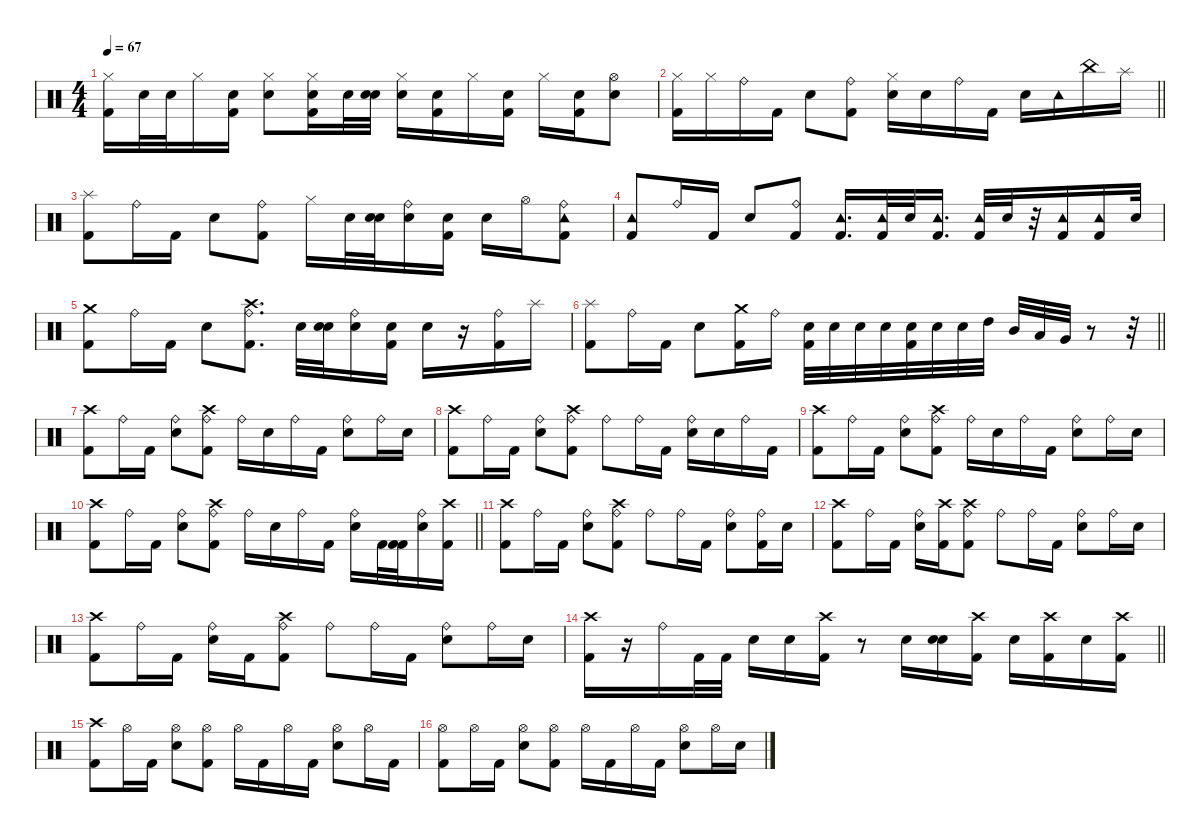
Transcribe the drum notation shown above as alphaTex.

\defaultSystemsLayout 4
\hideDynamics
\bracketExtendMode nobrackets
\singleTrackTrackNamePolicy hidden
\multiTrackTrackNamePolicy hidden
\firstSystemTrackNameMode fullname
\otherSystemsTrackNameOrientation horizontal
\track ("Drums" "drm.") {instrument percussion}
\staff {score}
\articulation defaults
\ts (4 4)
\tempo 67
\clef neutral
\ks c
("Hi-Hat (closed)" "Kick (hit) 2").16{dy f beam Down} "Snare (hit) 2".32{dy p beam Down} "Snare (hit) 2".32{beam Down} "Hi-Hat (closed)".16{dy f beam Down} ("Kick (hit) 2" "Snare (hit) 2").16{beam Down} ("Hi-Hat (closed)" "Snare (hit) 2").8{beam Down} ("Hi-Hat (closed)" "Kick (hit) 2" "Snare (hit) 2").16{beam Down} "Snare (hit) 2".32{dy p beam Down} ("Snare (hit) 2" "Snare (hit) 2").32{beam Down} ("Hi-Hat (closed)" "Snare (hit) 2").16{dy f beam Down} ("Kick (hit) 2" "Snare (hit) 2").16{beam Down} "Hi-Hat (closed)".16{beam Down} ("Kick (hit) 2" "Snare (hit) 2").16{beam Down} "Hi-Hat (closed)".16{beam Down} ("Kick (hit) 2" "Snare (hit) 2").16{beam Down} ("Hi-Hat (open)" "Snare (hit) 2").8{beam Down} |
\barLineRight lightlight
("Hi-Hat (closed)" "Kick (hit) 2").16{beam Down} "Hi-Hat (closed)".16{beam Down} "Ride (bell)".16{beam Down} "Kick (hit) 2".16{beam Down} "Snare (hit) 2".8{beam Down} ("Kick (hit) 2" "Ride (bell)").8{beam Down} ("Hi-Hat (closed)" "Snare (hit) 2").16{beam Down} "Snare (hit) 2".16{dy p beam Down} "Ride (bell)".16{dy f beam Down} "Kick (hit) 2".16{beam Down} "Snare (hit) 2".16{beam Down} "Tambourine (hit)".16{beam Down} "China (hit)".16{beam Down} "Splash (hit)".16{beam Down} |
("Splash (hit)" "Kick (hit) 2").8{beam Down} "Ride (bell)".16{beam Down} "Kick (hit) 2".16{beam Down} "Snare (hit) 2".8{beam Down} ("Kick (hit) 2" "Ride (bell)").8{beam Down} "Hi-Hat (closed)".16{beam Down} "Snare (hit) 2".32{dy p beam Down} ("Snare (hit) 2" "Snare (hit) 2").32{beam Down} ("Ride (bell)" "Snare (hit) 2").16{dy f beam Down} ("Kick (hit) 2" "Snare (hit) 2").16{beam Down} "Snare (hit) 2".16{beam Down} "Hi-Hat (open)".16{beam Down} ("Ride (bell)" "Tambourine (hit)" "Kick (hit) 2").8{beam Down} |
("Kick (hit) 2" "Tambourine (hit)").8{beam Up} "Ride (bell)".16{beam Up} "Kick (hit) 2".16{beam Up} "Snare (hit) 2".8{beam Up} ("Ride (bell)" "Kick (hit) 2").8{beam Up} ("Kick (hit) 2" "Tambourine (hit)").16{d beam Up} ("Kick (hit) 2" "Tambourine (hit)").32{beam Up} "Snare (hit) 2".32{beam Up} ("Kick (hit) 2" "Tambourine (hit)").16{d beam Up} ("Kick (hit) 2" "Tambourine (hit)").32{beam Up} "Snare (hit) 2".32{beam Up} r.32{beam Up} ("Kick (hit) 2" "Tambourine (hit)").16{beam Up} ("Kick (hit) 2" "Tambourine (hit)").16{beam Up} "Snare (hit) 2".32{beam Up} |
("Kick (hit) 2" "Crash medium (hit)").8{beam Down} "Ride (bell)".16{beam Down} "Kick (hit) 2".16{beam Down} "Snare (hit) 2".8{beam Down} ("Ride (bell)" "Kick (hit) 2" "Crash high (hit)").8{d beam Down} "Snare (hit) 2".32{dy p beam Down} ("Snare (hit) 2" "Snare (hit) 2").32{beam Down} ("Ride (bell)" "Snare (hit) 2").16{dy f beam Down} ("Kick (hit) 2" "Snare (hit) 2").16{beam Down} "Snare (hit) 2".16{beam Down} r.16{beam Down} ("Ride (bell)" "Kick (hit) 2").16{beam Down} "Splash (hit)".16{beam Down} |
\barLineRight lightlight
("Kick (hit) 2" "Splash (hit)").8{beam Down} "Ride (bell)".16{beam Down} "Kick (hit) 2".16{beam Down} "Snare (hit) 2".8{beam Down} ("Kick (hit) 2" "Crash medium (hit)").16{beam Down} "Ride (bell)".16{beam Down} ("Kick (hit) 2" "Snare (hit) 2").32{beam Down} "Snare (hit) 2".32{beam Down} "Snare (hit) 2".32{beam Down} "Snare (hit) 2".32{dy mp beam Down} ("Kick (hit) 2" "Snare (hit) 2").32{dy f beam Down} "Snare (hit) 2".32{beam Down} "Snare (hit) 2".32{beam Down} "High Tom (hit)".32{beam Down} "Mid Tom (hit)".32{beam Up} "Low Tom (hit)".32{beam Up} "Very Low Tom (hit)".32{beam Up} r.8{beam Up} r.32{beam Up} |
("Kick (hit) 2" "Crash high (hit)").8{beam Down} "Ride (bell)".16{beam Down} "Kick (hit) 2".16{beam Down} ("Snare (hit) 2" "Ride (bell)").8{beam Down} ("Kick (hit) 2" "Ride (bell)" "Crash high (hit)").8{beam Down} "Ride (bell)".16{beam Down} "Snare (hit) 2".16{dy mp beam Down} "Ride (bell)".16{dy f beam Down} "Kick (hit) 2".16{beam Down} ("Snare (hit) 2" "Ride (bell)").8{beam Down} "Ride (bell)".16{beam Down} "Snare (hit) 2".16{beam Down} |
("Crash high (hit)" "Kick (hit) 2").8{beam Down} "Ride (bell)".16{beam Down} "Kick (hit) 2".16{beam Down} ("Snare (hit) 2" "Ride (bell)").8{beam Down} ("Kick (hit) 2" "Ride (bell)" "Crash high (hit)").8{beam Down} "Ride (bell)".8{beam Down} "Ride (bell)".16{beam Down} "Kick (hit) 2".16{beam Down} ("Snare (hit) 2" "Ride (bell)").16{beam Down} "Snare (hit) 2".16{beam Down} "Ride (bell)".16{beam Down} "Kick (hit) 2".16{beam Down} |
("Crash high (hit)" "Kick (hit) 2").8{beam Down} "Ride (bell)".16{beam Down} "Kick (hit) 2".16{beam Down} ("Snare (hit) 2" "Ride (bell)").8{beam Down} ("Kick (hit) 2" "Ride (bell)" "Crash high (hit)").8{beam Down} "Ride (bell)".16{beam Down} "Snare (hit) 2".16{dy mp beam Down} "Ride (bell)".16{dy f beam Down} "Kick (hit) 2".16{beam Down} ("Snare (hit) 2" "Ride (bell)").8{beam Down} "Ride (bell)".16{beam Down} "Snare (hit) 2".16{beam Down} |
\barLineRight lightlight
("Kick (hit) 2" "Crash high (hit)").8{beam Down} "Ride (bell)".16{beam Down} "Kick (hit) 2".16{beam Down} ("Snare (hit) 2" "Ride (bell)").8{beam Down} ("Kick (hit) 2" "Ride (bell)" "Crash high (hit)").8{beam Down} "Ride (bell)".16{beam Down} "Snare (hit) 2".16{beam Down} "Ride (bell)".16{beam Down} "Kick (hit) 2".16{beam Down} ("Ride (bell)" "Snare (hit) 2").16{beam Down} "Kick (hit) 2".32{beam Down} ("Kick (hit) 2" "Kick (hit) 2").32{beam Down} ("Ride (bell)" "Snare (hit) 2").16{beam Down} ("Kick (hit) 2" "Crash high (hit)").16{beam Down} |
("Crash high (hit)" "Kick (hit) 2").8{beam Down} "Ride (bell)".16{beam Down} "Kick (hit) 2".16{beam Down} ("Snare (hit) 2" "Ride (bell)").8{beam Down} ("Kick (hit) 2" "Ride (bell)" "Crash high (hit)").8{beam Down} "Ride (bell)".8{beam Down} "Ride (bell)".16{beam Down} "Kick (hit) 2".16{beam Down} ("Snare (hit) 2" "Ride (bell)").8{beam Down} ("Ride (bell)" "Kick (hit) 2").16{beam Down} "Snare (hit) 2".16{beam Down} |
("Kick (hit) 2" "Crash high (hit)").8{beam Down} "Ride (bell)".16{beam Down} "Kick (hit) 2".16{beam Down} ("Ride (bell)" "Snare (hit) 2").16{beam Down} ("Crash high (hit)" "Kick (hit) 2").16{beam Down} ("Kick (hit) 2" "Ride (bell)" "Crash high (hit)").8{beam Down} "Ride (bell)".8{beam Down} "Ride (bell)".16{beam Down} "Kick (hit) 2".16{beam Down} ("Snare (hit) 2" "Ride (bell)").8{beam Down} "Ride (bell)".16{beam Down} "Snare (hit) 2".16{beam Down} |
("Crash high (hit)" "Kick (hit) 2").8{beam Down} "Ride (bell)".16{beam Down} "Kick (hit) 2".16{beam Down} ("Ride (bell)" "Snare (hit) 2").16{beam Down} "Kick (hit) 2".16{beam Down} ("Kick (hit) 2" "Ride (bell)" "Crash high (hit)").8{beam Down} "Ride (bell)".8{beam Down} "Ride (bell)".16{beam Down} "Kick (hit) 2".16{beam Down} ("Snare (hit) 2" "Ride (bell)").8{beam Down} "Ride (bell)".16{beam Down} "Snare (hit) 2".16{beam Down} |
\barLineRight lightlight
("Crash high (hit)" "Kick (hit) 2").16{beam Down} r.16{beam Down} "Ride (bell)".16{beam Down} "Kick (hit) 2".32{beam Down} "Kick (hit) 2".32{beam Down} "Snare (hit) 2".16{beam Down} "Snare (hit) 2".16{beam Down} ("Crash high (hit)" "Kick (hit) 2").16{beam Down} r.8{beam Down} "Snare (hit) 2".16{beam Down} ("Snare (hit) 2" "Snare (hit) 2").16{beam Down} ("Crash high (hit)" "Kick (hit) 2").16{beam Down} "Snare (hit) 2".16{beam Down} ("Crash high (hit)" "Kick (hit) 2").16{beam Down} "Snare (hit) 2".16{beam Down} ("Kick (hit) 2" "Crash high (hit)").16{beam Down} |
("Crash high (hit)" "Kick (hit) 2").8{beam Down} "Hi-Hat (open)".16{beam Down} "Kick (hit) 2".16{beam Down} ("Hi-Hat (open)" "Snare (hit) 2").8{beam Down} ("Hi-Hat (open)" "Kick (hit) 2").8{beam Down} "Hi-Hat (open)".16{beam Down} "Kick (hit) 2".16{beam Down} "Hi-Hat (open)".16{beam Down} "Kick (hit) 2".16{beam Down} ("Hi-Hat (open)" "Snare (hit) 2").8{beam Down} "Hi-Hat (open)".16{beam Down} "Kick (hit) 2".16{beam Down} |
("Kick (hit) 2" "Hi-Hat (open)").8{beam Down} "Hi-Hat (open)".16{beam Down} "Kick (hit) 2".16{beam Down} ("Hi-Hat (open)" "Snare (hit) 2").8{beam Down} ("Hi-Hat (open)" "Kick (hit) 2").8{beam Down} "Hi-Hat (open)".16{beam Down} "Kick (hit) 2".16{beam Down} "Hi-Hat (open)".16{beam Down} "Kick (hit) 2".16{beam Down} ("Hi-Hat (open)" "Snare (hit) 2").8{beam Down} "Hi-Hat (open)".16{beam Down} "Snare (hit) 2".16{beam Down}
